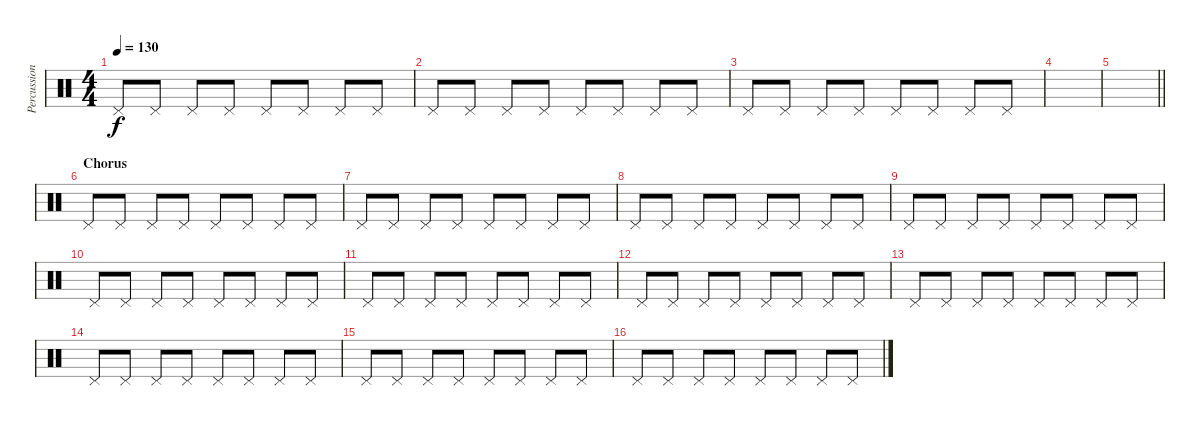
\track ("Percussion" "Percussion") {instrument percussion}
\staff {score}
\articulation defaults
\ts (4 4)
\tempo 130
\clef neutral
\ks c "Pedal Hi-Hat (hit)".8{dy f} "Pedal Hi-Hat (hit)".8 "Pedal Hi-Hat (hit)".8 "Pedal Hi-Hat (hit)".8 "Pedal Hi-Hat (hit)".8 "Pedal Hi-Hat (hit)".8 "Pedal Hi-Hat (hit)".8 "Pedal Hi-Hat (hit)".8
|
"Pedal Hi-Hat (hit)".8 "Pedal Hi-Hat (hit)".8 "Pedal Hi-Hat (hit)".8 "Pedal Hi-Hat (hit)".8 "Pedal Hi-Hat (hit)".8 "Pedal Hi-Hat (hit)".8 "Pedal Hi-Hat (hit)".8 "Pedal Hi-Hat (hit)".8 |
"Pedal Hi-Hat (hit)".8 "Pedal Hi-Hat (hit)".8 "Pedal Hi-Hat (hit)".8 "Pedal Hi-Hat (hit)".8 "Pedal Hi-Hat (hit)".8 "Pedal Hi-Hat (hit)".8 "Pedal Hi-Hat (hit)".8 "Pedal Hi-Hat (hit)".8 |
|
\barLineRight lightlight
|
\section ("" "Chorus")
"Pedal Hi-Hat (hit)".8 "Pedal Hi-Hat (hit)".8 "Pedal Hi-Hat (hit)".8 "Pedal Hi-Hat (hit)".8 "Pedal Hi-Hat (hit)".8 "Pedal Hi-Hat (hit)".8 "Pedal Hi-Hat (hit)".8 "Pedal Hi-Hat (hit)".8 |
"Pedal Hi-Hat (hit)".8 "Pedal Hi-Hat (hit)".8 "Pedal Hi-Hat (hit)".8 "Pedal Hi-Hat (hit)".8 "Pedal Hi-Hat (hit)".8 "Pedal Hi-Hat (hit)".8 "Pedal Hi-Hat (hit)".8 "Pedal Hi-Hat (hit)".8 |
"Pedal Hi-Hat (hit)".8 "Pedal Hi-Hat (hit)".8 "Pedal Hi-Hat (hit)".8 "Pedal Hi-Hat (hit)".8 "Pedal Hi-Hat (hit)".8 "Pedal Hi-Hat (hit)".8 "Pedal Hi-Hat (hit)".8 "Pedal Hi-Hat (hit)".8 |
"Pedal Hi-Hat (hit)".8 "Pedal Hi-Hat (hit)".8 "Pedal Hi-Hat (hit)".8 "Pedal Hi-Hat (hit)".8 "Pedal Hi-Hat (hit)".8 "Pedal Hi-Hat (hit)".8 "Pedal Hi-Hat (hit)".8 "Pedal Hi-Hat (hit)".8 |
"Pedal Hi-Hat (hit)".8 "Pedal Hi-Hat (hit)".8 "Pedal Hi-Hat (hit)".8 "Pedal Hi-Hat (hit)".8 "Pedal Hi-Hat (hit)".8 "Pedal Hi-Hat (hit)".8 "Pedal Hi-Hat (hit)".8 "Pedal Hi-Hat (hit)".8 |
"Pedal Hi-Hat (hit)".8 "Pedal Hi-Hat (hit)".8 "Pedal Hi-Hat (hit)".8 "Pedal Hi-Hat (hit)".8 "Pedal Hi-Hat (hit)".8 "Pedal Hi-Hat (hit)".8 "Pedal Hi-Hat (hit)".8 "Pedal Hi-Hat (hit)".8 |
"Pedal Hi-Hat (hit)".8 "Pedal Hi-Hat (hit)".8 "Pedal Hi-Hat (hit)".8 "Pedal Hi-Hat (hit)".8 "Pedal Hi-Hat (hit)".8 "Pedal Hi-Hat (hit)".8 "Pedal Hi-Hat (hit)".8 "Pedal Hi-Hat (hit)".8 |
"Pedal Hi-Hat (hit)".8 "Pedal Hi-Hat (hit)".8 "Pedal Hi-Hat (hit)".8 "Pedal Hi-Hat (hit)".8 "Pedal Hi-Hat (hit)".8 "Pedal Hi-Hat (hit)".8 "Pedal Hi-Hat (hit)".8 "Pedal Hi-Hat (hit)".8 |
"Pedal Hi-Hat (hit)".8 "Pedal Hi-Hat (hit)".8 "Pedal Hi-Hat (hit)".8 "Pedal Hi-Hat (hit)".8 "Pedal Hi-Hat (hit)".8 "Pedal Hi-Hat (hit)".8 "Pedal Hi-Hat (hit)".8 "Pedal Hi-Hat (hit)".8 |
"Pedal Hi-Hat (hit)".8 "Pedal Hi-Hat (hit)".8 "Pedal Hi-Hat (hit)".8 "Pedal Hi-Hat (hit)".8 "Pedal Hi-Hat (hit)".8 "Pedal Hi-Hat (hit)".8 "Pedal Hi-Hat (hit)".8 "Pedal Hi-Hat (hit)".8 |
"Pedal Hi-Hat (hit)".8 "Pedal Hi-Hat (hit)".8 "Pedal Hi-Hat (hit)".8 "Pedal Hi-Hat (hit)".8 "Pedal Hi-Hat (hit)".8 "Pedal Hi-Hat (hit)".8 "Pedal Hi-Hat (hit)".8 "Pedal Hi-Hat (hit)".8
